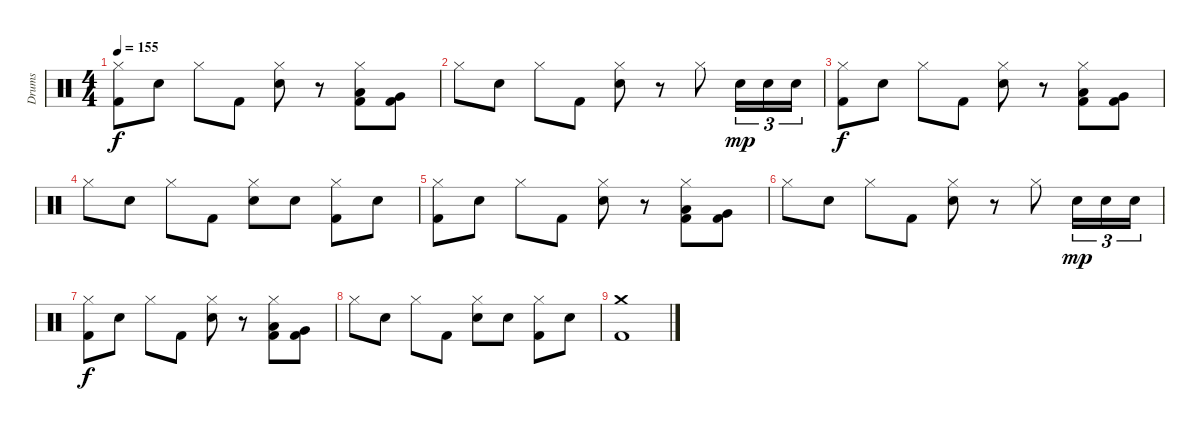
\track ("Drums" "Drums") {instrument percussion}
\staff {score}
\articulation defaults
\ts (4 4)
\tempo 155
\clef neutral
\ks c
("Hi-Hat (closed)" "Kick (hit) 2").8{dy f} "Electric Snare (hit)".8 "Hi-Hat (closed)".8 "Kick (hit) 2".8 ("Hi-Hat (closed)" "Electric Snare (hit)").8 r.8 ("Hi-Hat (closed)" "Low Tom (hit)" "Kick (hit) 2").8 ("Very Low Tom (hit)" "Kick (hit) 2").8 |
"Hi-Hat (closed)".8 "Electric Snare (hit)".8 "Hi-Hat (closed)".8 "Kick (hit) 2".8 ("Hi-Hat (closed)" "Electric Snare (hit)").8 r.8 "Hi-Hat (closed)".8 "Electric Snare (hit)".16{tu (3 2) dy mp} "Electric Snare (hit)".16{tu (3 2)} "Electric Snare (hit)".16{tu (3 2)} |
("Hi-Hat (closed)" "Kick (hit) 2").8{dy f} "Electric Snare (hit)".8 "Hi-Hat (closed)".8 "Kick (hit) 2".8 ("Hi-Hat (closed)" "Electric Snare (hit)").8 r.8 ("Hi-Hat (closed)" "Low Tom (hit)" "Kick (hit) 2").8 ("Very Low Tom (hit)" "Kick (hit) 2").8 |
"Hi-Hat (closed)".8 "Electric Snare (hit)".8 "Hi-Hat (closed)".8 "Kick (hit) 2".8 ("Hi-Hat (closed)" "Electric Snare (hit)").8 "Electric Snare (hit)".8 ("Hi-Hat (closed)" "Kick (hit) 2").8 "Electric Snare (hit)".8 |
("Hi-Hat (closed)" "Kick (hit) 2").8 "Electric Snare (hit)".8 "Hi-Hat (closed)".8 "Kick (hit) 2".8 ("Hi-Hat (closed)" "Electric Snare (hit)").8 r.8 ("Hi-Hat (closed)" "Low Tom (hit)" "Kick (hit) 2").8 ("Very Low Tom (hit)" "Kick (hit) 2").8 |
"Hi-Hat (closed)".8 "Electric Snare (hit)".8 "Hi-Hat (closed)".8 "Kick (hit) 2".8 ("Hi-Hat (closed)" "Electric Snare (hit)").8 r.8 "Hi-Hat (closed)".8 "Electric Snare (hit)".16{tu (3 2) dy mp} "Electric Snare (hit)".16{tu (3 2)} "Electric Snare (hit)".16{tu (3 2)} |
("Hi-Hat (closed)" "Kick (hit) 2").8{dy f} "Electric Snare (hit)".8 "Hi-Hat (closed)".8 "Kick (hit) 2".8 ("Hi-Hat (closed)" "Electric Snare (hit)").8 r.8 ("Hi-Hat (closed)" "Low Tom (hit)" "Kick (hit) 2").8 ("Very Low Tom (hit)" "Kick (hit) 2").8 |
"Hi-Hat (closed)".8 "Electric Snare (hit)".8 "Hi-Hat (closed)".8 "Kick (hit) 2".8 ("Hi-Hat (closed)" "Electric Snare (hit)").8 "Electric Snare (hit)".8 ("Hi-Hat (closed)" "Kick (hit) 2").8 "Electric Snare (hit)".8 |
("Crash medium (hit)" "Kick (hit) 2").1
